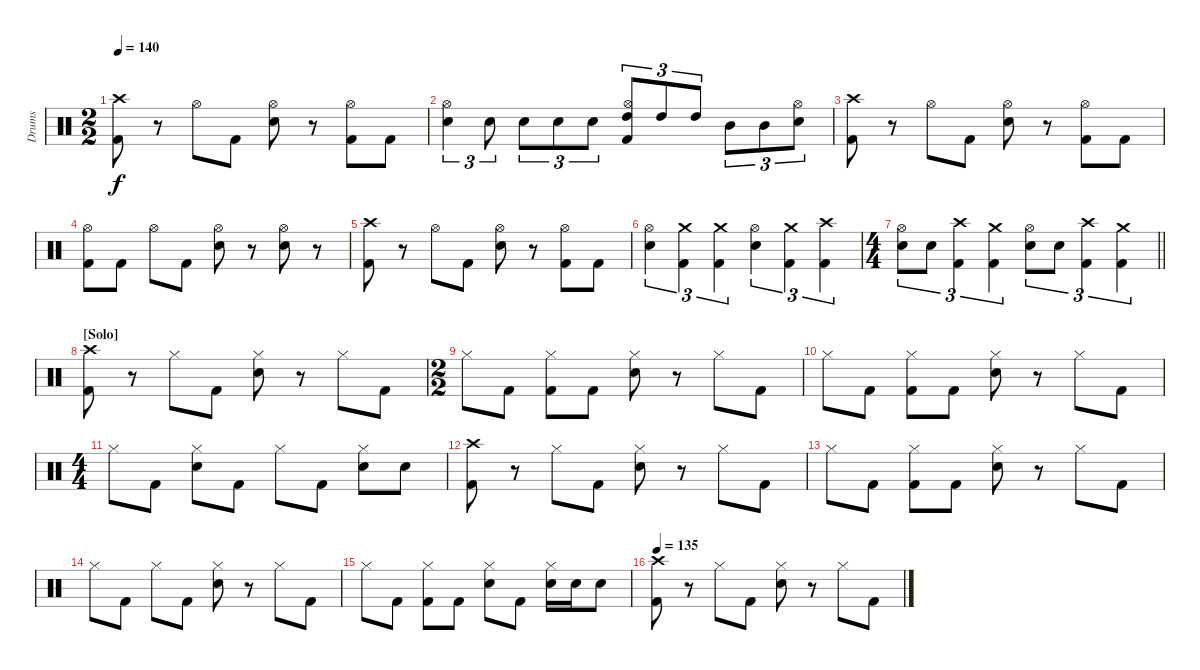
\track ("Drums" "Drums") {instrument percussion}
\staff {score}
\articulation defaults
\ts (2 2)
\tempo 140
\clef neutral
\ks c
("Crash high (hit)" "Kick (hit) 2").8{dy f} r.8 "Hi-Hat (open)".8 "Kick (hit) 2".8 ("Hi-Hat (open)" "Snare (hit) 2").8 r.8 ("Hi-Hat (open)" "Kick (hit) 2").8 "Kick (hit) 2".8 |
("Hi-Hat (open)" "Snare (hit) 2").4{tu (3 2)} "Snare (hit) 2".8{tu (3 2)} "Snare (hit) 2".8{tu (3 2)} "Snare (hit) 2".8{tu (3 2)} "Snare (hit) 2".8{tu (3 2)} ("Hi-Hat (open)" "High Tom (hit)" "Kick (hit) 2").8{tu (3 2)} "High Tom (hit)".8{tu (3 2)} "High Tom (hit)".8{tu (3 2)} "Mid Tom (hit)".8{tu (3 2)} "Mid Tom (hit)".8{tu (3 2)} ("Hi-Hat (open)" "Snare (hit) 2").8{tu (3 2)} |
("Crash high (hit)" "Kick (hit) 2").8 r.8 "Hi-Hat (open)".8 "Kick (hit) 2".8 ("Hi-Hat (open)" "Snare (hit) 2").8 r.8 ("Hi-Hat (open)" "Kick (hit) 2").8 "Kick (hit) 2".8 |
("Hi-Hat (open)" "Kick (hit) 2").8 "Kick (hit) 2".8 "Hi-Hat (open)".8 "Kick (hit) 2".8 ("Hi-Hat (open)" "Snare (hit) 2").8 r.8 ("Hi-Hat (open)" "Snare (hit) 2").8 r.8 |
("Crash high (hit)" "Kick (hit) 2").8 r.8 "Hi-Hat (open)".8 "Kick (hit) 2".8 ("Hi-Hat (open)" "Snare (hit) 2").8 r.8 ("Hi-Hat (open)" "Kick (hit) 2").8 "Kick (hit) 2".8 |
("Hi-Hat (open)" "Snare (hit) 2").4{tu (3 2)} ("Crash medium (hit)" "Kick (hit) 2").4{tu (3 2)} ("Crash medium (hit)" "Kick (hit) 2").4{tu (3 2)} ("Hi-Hat (open)" "Snare (hit) 2").4{tu (3 2)} ("Crash medium (hit)" "Kick (hit) 2").4{tu (3 2)} ("Crash high (hit)" "Kick (hit) 2").4{tu (3 2)} |
\ts (4 4)
\barLineRight lightlight
("Hi-Hat (open)" "Snare (hit) 2").8{tu (3 2)} "Snare (hit) 2".8{tu (3 2)} ("Crash high (hit)" "Kick (hit) 2").4{tu (3 2)} ("Crash medium (hit)" "Kick (hit) 2").4{tu (3 2)} ("Hi-Hat (open)" "Snare (hit) 2").8{tu (3 2)} "Snare (hit) 2".8{tu (3 2)} ("Crash high (hit)" "Kick (hit) 2").4{tu (3 2)} ("Crash medium (hit)" "Kick (hit) 2").4{tu (3 2)} |
\section ("" "[Solo]")
("Crash high (hit)" "Kick (hit) 2").8 r.8 "Hi-Hat (closed)".8 "Kick (hit) 2".8 ("Hi-Hat (closed)" "Snare (hit) 2").8 r.8 "Hi-Hat (closed)".8 "Kick (hit) 2".8 |
\ts (2 2)
"Hi-Hat (closed)".8 "Kick (hit) 2".8 ("Hi-Hat (closed)" "Kick (hit) 2").8 "Kick (hit) 2".8 ("Hi-Hat (closed)" "Snare (hit) 2").8 r.8 "Hi-Hat (closed)".8 "Kick (hit) 2".8 |
"Hi-Hat (closed)".8 "Kick (hit) 2".8 ("Hi-Hat (closed)" "Kick (hit) 2").8 "Kick (hit) 2".8 ("Hi-Hat (closed)" "Snare (hit) 2").8 r.8 "Hi-Hat (closed)".8 "Kick (hit) 2".8 |
\ts (4 4)
"Hi-Hat (closed)".8 "Kick (hit) 2".8 ("Hi-Hat (closed)" "Snare (hit) 2").8 "Kick (hit) 2".8 "Hi-Hat (closed)".8 "Kick (hit) 2".8 ("Hi-Hat (closed)" "Snare (hit) 2").8 "Snare (hit) 2".8 |
("Crash high (hit)" "Kick (hit) 2").8 r.8 "Hi-Hat (closed)".8 "Kick (hit) 2".8 ("Hi-Hat (closed)" "Snare (hit) 2").8 r.8 "Hi-Hat (closed)".8 "Kick (hit) 2".8 |
"Hi-Hat (closed)".8 "Kick (hit) 2".8 ("Hi-Hat (closed)" "Kick (hit) 2").8 "Kick (hit) 2".8 ("Hi-Hat (closed)" "Snare (hit) 2").8 r.8 "Hi-Hat (closed)".8 "Kick (hit) 2".8 |
"Hi-Hat (closed)".8 "Kick (hit) 2".8 "Hi-Hat (closed)".8 "Kick (hit) 2".8 ("Hi-Hat (closed)" "Snare (hit) 2").8 r.8 "Hi-Hat (closed)".8 "Kick (hit) 2".8 |
"Hi-Hat (closed)".8 "Kick (hit) 2".8 ("Hi-Hat (closed)" "Kick (hit) 2").8 "Kick (hit) 2".8 ("Hi-Hat (closed)" "Snare (hit) 2").8 "Kick (hit) 2".8 ("Hi-Hat (closed)" "Snare (hit) 2").16 "Snare (hit) 2".16 "Snare (hit) 2".8 |
\tempo 135
("Crash high (hit)" "Kick (hit) 2").8 r.8 "Hi-Hat (closed)".8 "Kick (hit) 2".8 ("Hi-Hat (closed)" "Snare (hit) 2").8 r.8 "Hi-Hat (closed)".8 "Kick (hit) 2".8
